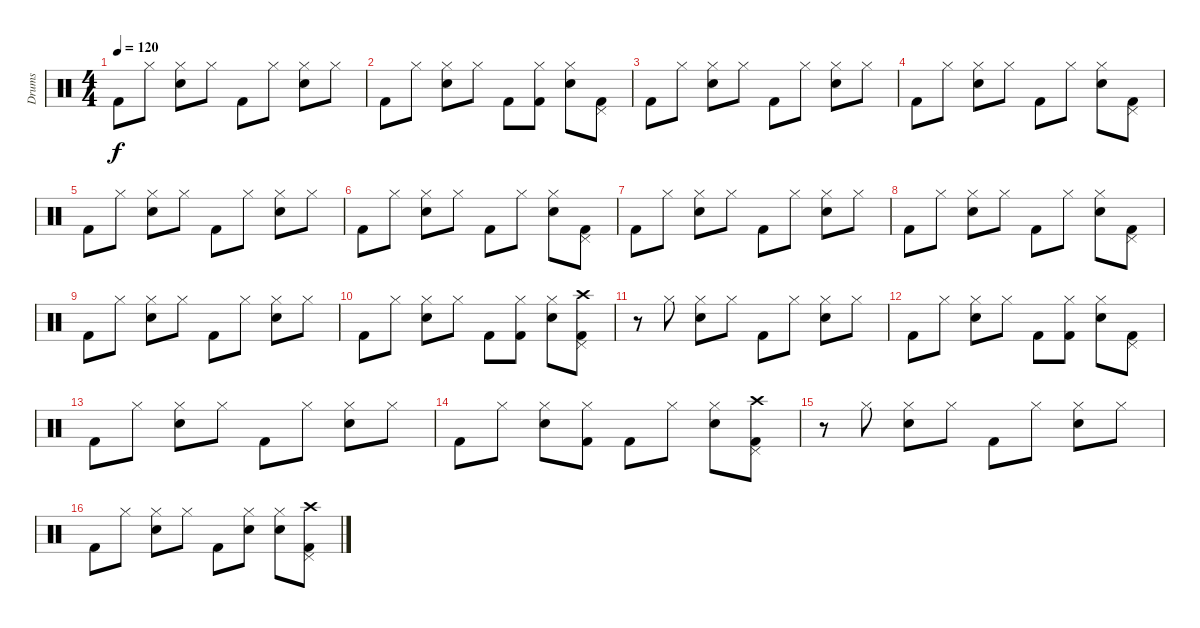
\track ("Drums" "Drums") {instrument percussion}
\staff {score}
\articulation defaults
\ts (4 4)
\tempo 120
\clef neutral
\ks c "Kick (hit) 2".8{dy f} "Hi-Hat (closed)".8
("Hi-Hat (closed)" "Snare (hit) 2").8 "Hi-Hat (closed)".8 "Kick (hit) 2".8 "Hi-Hat (closed)".8 ("Hi-Hat (closed)" "Snare (hit) 2").8 "Hi-Hat (closed)".8 |
"Kick (hit) 2".8 "Hi-Hat (closed)".8 ("Hi-Hat (closed)" "Snare (hit) 2").8 "Hi-Hat (closed)".8 "Kick (hit) 2".8 ("Hi-Hat (closed)" "Kick (hit) 2").8 ("Hi-Hat (closed)" "Snare (hit) 2").8 ("Pedal Hi-Hat (hit)" "Kick (hit) 2").8 |
"Kick (hit) 2".8 "Hi-Hat (closed)".8 ("Hi-Hat (closed)" "Snare (hit) 2").8 "Hi-Hat (closed)".8 "Kick (hit) 2".8 "Hi-Hat (closed)".8 ("Hi-Hat (closed)" "Snare (hit) 2").8 "Hi-Hat (closed)".8 |
"Kick (hit) 2".8 "Hi-Hat (closed)".8 ("Hi-Hat (closed)" "Snare (hit) 2").8 "Hi-Hat (closed)".8 "Kick (hit) 2".8 "Hi-Hat (closed)".8 ("Hi-Hat (closed)" "Snare (hit) 2").8 ("Pedal Hi-Hat (hit)" "Kick (hit) 2").8 |
"Kick (hit) 2".8 "Hi-Hat (closed)".8 ("Hi-Hat (closed)" "Snare (hit) 2").8 "Hi-Hat (closed)".8 "Kick (hit) 2".8 "Hi-Hat (closed)".8 ("Hi-Hat (closed)" "Snare (hit) 2").8 "Hi-Hat (closed)".8 |
"Kick (hit) 2".8 "Hi-Hat (closed)".8 ("Hi-Hat (closed)" "Snare (hit) 2").8 "Hi-Hat (closed)".8 "Kick (hit) 2".8 "Hi-Hat (closed)".8 ("Hi-Hat (closed)" "Snare (hit) 2").8 ("Pedal Hi-Hat (hit)" "Kick (hit) 2").8 |
"Kick (hit) 2".8 "Hi-Hat (closed)".8 ("Hi-Hat (closed)" "Snare (hit) 2").8 "Hi-Hat (closed)".8 "Kick (hit) 2".8 "Hi-Hat (closed)".8 ("Hi-Hat (closed)" "Snare (hit) 2").8 "Hi-Hat (closed)".8 |
"Kick (hit) 2".8 "Hi-Hat (closed)".8 ("Hi-Hat (closed)" "Snare (hit) 2").8 "Hi-Hat (closed)".8 "Kick (hit) 2".8 "Hi-Hat (closed)".8 ("Hi-Hat (closed)" "Snare (hit) 2").8 ("Pedal Hi-Hat (hit)" "Kick (hit) 2").8 |
"Kick (hit) 2".8 "Hi-Hat (closed)".8 ("Hi-Hat (closed)" "Snare (hit) 2").8 "Hi-Hat (closed)".8 "Kick (hit) 2".8 "Hi-Hat (closed)".8 ("Hi-Hat (closed)" "Snare (hit) 2").8 "Hi-Hat (closed)".8 |
"Kick (hit) 2".8 "Hi-Hat (closed)".8 ("Hi-Hat (closed)" "Snare (hit) 2").8 "Hi-Hat (closed)".8 "Kick (hit) 2".8 ("Hi-Hat (closed)" "Kick (hit) 2").8 ("Hi-Hat (closed)" "Snare (hit) 2").8 ("Pedal Hi-Hat (hit)" "Crash high (hit)" "Kick (hit) 2").8 |
r.8 "Hi-Hat (closed)".8 ("Hi-Hat (closed)" "Snare (hit) 2").8 "Hi-Hat (closed)".8 "Kick (hit) 2".8 "Hi-Hat (closed)".8 ("Hi-Hat (closed)" "Snare (hit) 2").8 "Hi-Hat (closed)".8 |
"Kick (hit) 2".8 "Hi-Hat (closed)".8 ("Hi-Hat (closed)" "Snare (hit) 2").8 "Hi-Hat (closed)".8 "Kick (hit) 2".8 ("Hi-Hat (closed)" "Kick (hit) 2").8 ("Hi-Hat (closed)" "Snare (hit) 2").8 ("Pedal Hi-Hat (hit)" "Kick (hit) 2").8 |
"Kick (hit) 2".8 "Hi-Hat (closed)".8 ("Hi-Hat (closed)" "Snare (hit) 2").8 "Hi-Hat (closed)".8 "Kick (hit) 2".8 "Hi-Hat (closed)".8 ("Hi-Hat (closed)" "Snare (hit) 2").8 "Hi-Hat (closed)".8 |
"Kick (hit) 2".8 "Hi-Hat (closed)".8 ("Hi-Hat (closed)" "Snare (hit) 2").8 ("Hi-Hat (closed)" "Kick (hit) 2").8 "Kick (hit) 2".8 "Hi-Hat (closed)".8 ("Hi-Hat (closed)" "Snare (hit) 2").8 ("Pedal Hi-Hat (hit)" "Crash high (hit)" "Kick (hit) 2").8 |
r.8 "Hi-Hat (closed)".8 ("Hi-Hat (closed)" "Snare (hit) 2").8 "Hi-Hat (closed)".8 "Kick (hit) 2".8 "Hi-Hat (closed)".8 ("Hi-Hat (closed)" "Snare (hit) 2").8 "Hi-Hat (closed)".8 |
"Kick (hit) 2".8 "Hi-Hat (closed)".8 ("Hi-Hat (closed)" "Snare (hit) 2").8 "Hi-Hat (closed)".8 "Kick (hit) 2".8 ("Hi-Hat (closed)" "Snare (hit) 2").8 ("Hi-Hat (closed)" "Snare (hit) 2").8 ("Pedal Hi-Hat (hit)" "Crash high (hit)" "Kick (hit) 2").8
